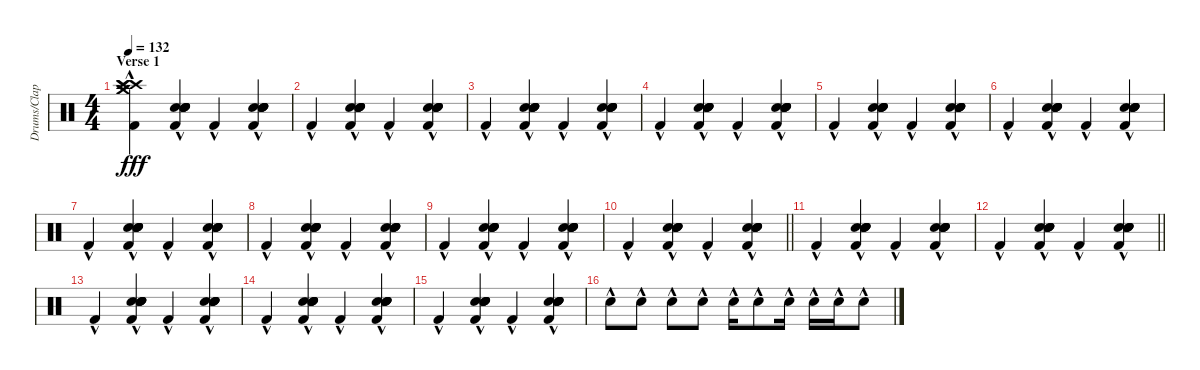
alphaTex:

\track ("Drums/Claps" "Drums/Clap") {instrument percussion}
\staff {score}
\articulation defaults
\ts (4 4)
\section ("" "Verse 1")
\tempo 132
\clef neutral
\ks c
("Crash high (hit)"{hac} "Crash high (hit)"{hac} "Crash high (hit)"{hac} "Crash medium (hit)"{hac} "Crash medium (hit)"{hac} "Kick (hit) 2"{hac}).4{dy fff} ("Hand Clap (hit)"{hac} "Hand Clap (hit)"{hac} "Hand Clap (hit)"{hac} "Snare (hit) 2"{hac} "Hand Clap (hit)"{hac} "Kick (hit) 2"{hac}).4 "Kick (hit) 2"{hac}.4 ("Hand Clap (hit)"{hac} "Hand Clap (hit)"{hac} "Hand Clap (hit)"{hac} "Snare (hit) 2"{hac} "Hand Clap (hit)"{hac} "Kick (hit) 2"{hac}).4 |
"Kick (hit) 2"{hac}.4 ("Hand Clap (hit)"{hac} "Hand Clap (hit)"{hac} "Hand Clap (hit)"{hac} "Snare (hit) 2"{hac} "Hand Clap (hit)"{hac} "Kick (hit) 2"{hac}).4 "Kick (hit) 2"{hac}.4 ("Hand Clap (hit)"{hac} "Hand Clap (hit)"{hac} "Hand Clap (hit)"{hac} "Snare (hit) 2"{hac} "Hand Clap (hit)"{hac} "Kick (hit) 2"{hac}).4 |
"Kick (hit) 2"{hac}.4 ("Hand Clap (hit)"{hac} "Hand Clap (hit)"{hac} "Hand Clap (hit)"{hac} "Snare (hit) 2"{hac} "Hand Clap (hit)"{hac} "Kick (hit) 2"{hac}).4 "Kick (hit) 2"{hac}.4 ("Hand Clap (hit)"{hac} "Hand Clap (hit)"{hac} "Hand Clap (hit)"{hac} "Snare (hit) 2"{hac} "Hand Clap (hit)"{hac} "Kick (hit) 2"{hac}).4 |
"Kick (hit) 2"{hac}.4 ("Hand Clap (hit)"{hac} "Hand Clap (hit)"{hac} "Hand Clap (hit)"{hac} "Snare (hit) 2"{hac} "Hand Clap (hit)"{hac} "Kick (hit) 2"{hac}).4 "Kick (hit) 2"{hac}.4 ("Hand Clap (hit)"{hac} "Hand Clap (hit)"{hac} "Hand Clap (hit)"{hac} "Snare (hit) 2"{hac} "Hand Clap (hit)"{hac} "Kick (hit) 2"{hac}).4 |
"Kick (hit) 2"{hac}.4 ("Hand Clap (hit)"{hac} "Hand Clap (hit)"{hac} "Hand Clap (hit)"{hac} "Snare (hit) 2"{hac} "Hand Clap (hit)"{hac} "Kick (hit) 2"{hac}).4 "Kick (hit) 2"{hac}.4 ("Hand Clap (hit)"{hac} "Hand Clap (hit)"{hac} "Hand Clap (hit)"{hac} "Snare (hit) 2"{hac} "Hand Clap (hit)"{hac} "Kick (hit) 2"{hac}).4 |
"Kick (hit) 2"{hac}.4 ("Hand Clap (hit)"{hac} "Hand Clap (hit)"{hac} "Hand Clap (hit)"{hac} "Snare (hit) 2"{hac} "Hand Clap (hit)"{hac} "Kick (hit) 2"{hac}).4 "Kick (hit) 2"{hac}.4 ("Hand Clap (hit)"{hac} "Hand Clap (hit)"{hac} "Hand Clap (hit)"{hac} "Snare (hit) 2"{hac} "Hand Clap (hit)"{hac} "Kick (hit) 2"{hac}).4 |
"Kick (hit) 2"{hac}.4 ("Hand Clap (hit)"{hac} "Hand Clap (hit)"{hac} "Hand Clap (hit)"{hac} "Snare (hit) 2"{hac} "Hand Clap (hit)"{hac} "Kick (hit) 2"{hac}).4 "Kick (hit) 2"{hac}.4 ("Hand Clap (hit)"{hac} "Hand Clap (hit)"{hac} "Hand Clap (hit)"{hac} "Snare (hit) 2"{hac} "Hand Clap (hit)"{hac} "Kick (hit) 2"{hac}).4 |
"Kick (hit) 2"{hac}.4 ("Hand Clap (hit)"{hac} "Hand Clap (hit)"{hac} "Hand Clap (hit)"{hac} "Snare (hit) 2"{hac} "Hand Clap (hit)"{hac} "Kick (hit) 2"{hac}).4 "Kick (hit) 2"{hac}.4 ("Hand Clap (hit)"{hac} "Hand Clap (hit)"{hac} "Hand Clap (hit)"{hac} "Snare (hit) 2"{hac} "Hand Clap (hit)"{hac} "Kick (hit) 2"{hac}).4 |
"Kick (hit) 2"{hac}.4 ("Hand Clap (hit)"{hac} "Hand Clap (hit)"{hac} "Hand Clap (hit)"{hac} "Snare (hit) 2"{hac} "Hand Clap (hit)"{hac} "Kick (hit) 2"{hac}).4 "Kick (hit) 2"{hac}.4 ("Hand Clap (hit)"{hac} "Hand Clap (hit)"{hac} "Hand Clap (hit)"{hac} "Snare (hit) 2"{hac} "Hand Clap (hit)"{hac} "Kick (hit) 2"{hac}).4 |
\barLineRight lightlight "Kick (hit) 2"{hac}.4
("Hand Clap (hit)"{hac} "Hand Clap (hit)"{hac} "Hand Clap (hit)"{hac} "Snare (hit) 2"{hac} "Hand Clap (hit)"{hac} "Kick (hit) 2"{hac}).4 "Kick (hit) 2"{hac}.4 ("Hand Clap (hit)"{hac} "Hand Clap (hit)"{hac} "Hand Clap (hit)"{hac} "Snare (hit) 2"{hac} "Hand Clap (hit)"{hac} "Kick (hit) 2"{hac}).4 |
"Kick (hit) 2"{hac}.4 ("Hand Clap (hit)"{hac} "Hand Clap (hit)"{hac} "Hand Clap (hit)"{hac} "Snare (hit) 2"{hac} "Hand Clap (hit)"{hac} "Kick (hit) 2"{hac}).4 "Kick (hit) 2"{hac}.4 ("Hand Clap (hit)"{hac} "Hand Clap (hit)"{hac} "Hand Clap (hit)"{hac} "Snare (hit) 2"{hac} "Hand Clap (hit)"{hac} "Kick (hit) 2"{hac}).4 |
\barLineRight lightlight "Kick (hit) 2"{hac}.4
("Hand Clap (hit)"{hac} "Hand Clap (hit)"{hac} "Hand Clap (hit)"{hac} "Snare (hit) 2"{hac} "Hand Clap (hit)"{hac} "Kick (hit) 2"{hac}).4 "Kick (hit) 2"{hac}.4 ("Hand Clap (hit)"{hac} "Hand Clap (hit)"{hac} "Hand Clap (hit)"{hac} "Snare (hit) 2"{hac} "Hand Clap (hit)"{hac} "Kick (hit) 2"{hac}).4 |
"Kick (hit) 2"{hac}.4 ("Hand Clap (hit)"{hac} "Hand Clap (hit)"{hac} "Hand Clap (hit)"{hac} "Snare (hit) 2"{hac} "Hand Clap (hit)"{hac} "Kick (hit) 2"{hac}).4 "Kick (hit) 2"{hac}.4 ("Hand Clap (hit)"{hac} "Hand Clap (hit)"{hac} "Hand Clap (hit)"{hac} "Snare (hit) 2"{hac} "Hand Clap (hit)"{hac} "Kick (hit) 2"{hac}).4 |
"Kick (hit) 2"{hac}.4 ("Hand Clap (hit)"{hac} "Hand Clap (hit)"{hac} "Hand Clap (hit)"{hac} "Snare (hit) 2"{hac} "Hand Clap (hit)"{hac} "Kick (hit) 2"{hac}).4 "Kick (hit) 2"{hac}.4 ("Hand Clap (hit)"{hac} "Hand Clap (hit)"{hac} "Hand Clap (hit)"{hac} "Snare (hit) 2"{hac} "Hand Clap (hit)"{hac} "Kick (hit) 2"{hac}).4 |
"Kick (hit) 2"{hac}.4 ("Hand Clap (hit)"{hac} "Hand Clap (hit)"{hac} "Hand Clap (hit)"{hac} "Snare (hit) 2"{hac} "Hand Clap (hit)"{hac} "Kick (hit) 2"{hac}).4 "Kick (hit) 2"{hac}.4 ("Hand Clap (hit)"{hac} "Hand Clap (hit)"{hac} "Hand Clap (hit)"{hac} "Snare (hit) 2"{hac} "Hand Clap (hit)"{hac} "Kick (hit) 2"{hac}).4 |
"Snare (hit) 2"{hac}.8 "Snare (hit) 2"{hac}.8 "Snare (hit) 2"{hac}.8 "Snare (hit) 2"{hac}.8 "Snare (hit) 2"{hac}.16 "Snare (hit) 2"{hac}.8 "Snare (hit) 2"{hac}.16 "Snare (hit) 2"{hac}.16 "Snare (hit) 2"{hac}.16 "Snare (hit) 2"{hac}.8
